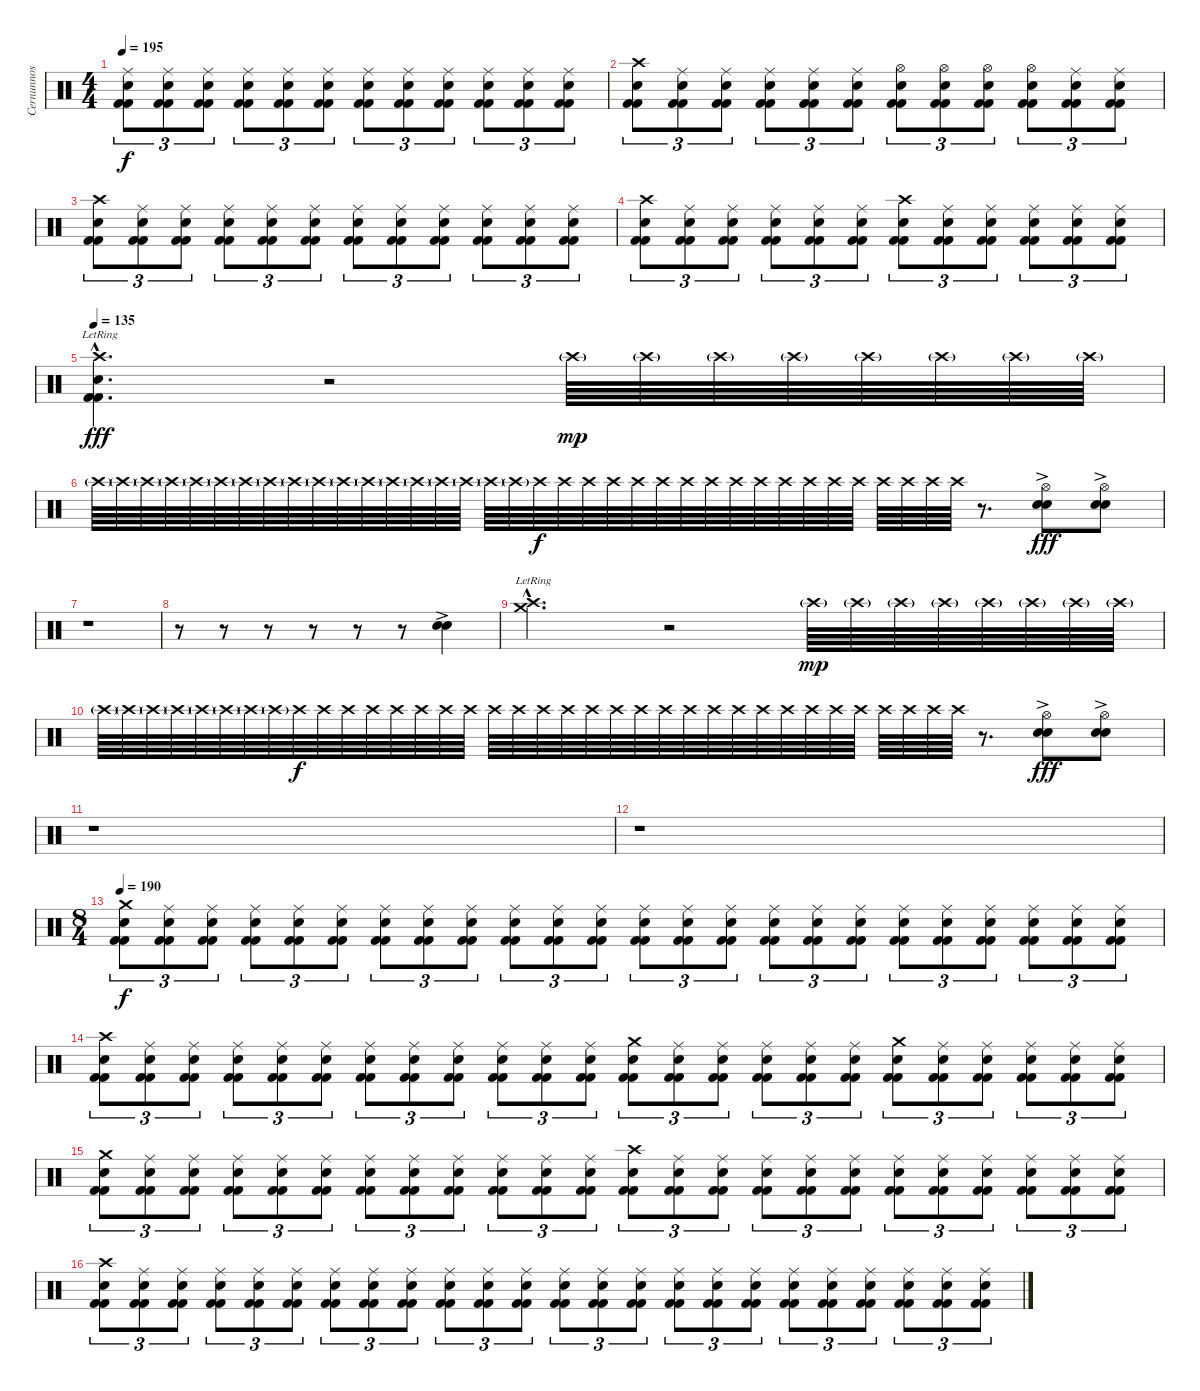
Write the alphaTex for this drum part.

\track ("Cernunnos (in memory)" "Cernunnos ") {instrument percussion}
\staff {score}
\articulation defaults
\ts (4 4)
\tempo 195
\clef neutral
\ks c
("Ride (middle)" "Electric Snare (hit)" "Kick (hit) 2" "Kick (hit) 2").8{tu (3 2) dy f} ("Ride (middle)" "Electric Snare (hit)" "Kick (hit) 2" "Kick (hit) 2").8{tu (3 2)} ("Ride (middle)" "Electric Snare (hit)" "Kick (hit) 2" "Kick (hit) 2").8{tu (3 2)} ("Ride (middle)" "Electric Snare (hit)" "Kick (hit) 2" "Kick (hit) 2").8{tu (3 2)} ("Ride (middle)" "Electric Snare (hit)" "Kick (hit) 2" "Kick (hit) 2").8{tu (3 2)} ("Ride (middle)" "Electric Snare (hit)" "Kick (hit) 2" "Kick (hit) 2").8{tu (3 2)} ("Ride (middle)" "Electric Snare (hit)" "Kick (hit) 2" "Kick (hit) 2").8{tu (3 2)} ("Ride (middle)" "Electric Snare (hit)" "Kick (hit) 2" "Kick (hit) 2").8{tu (3 2)} ("Ride (middle)" "Electric Snare (hit)" "Kick (hit) 2" "Kick (hit) 2").8{tu (3 2)} ("Ride (middle)" "Electric Snare (hit)" "Kick (hit) 2" "Kick (hit) 2").8{tu (3 2)} ("Ride (middle)" "Electric Snare (hit)" "Kick (hit) 2" "Kick (hit) 2").8{tu (3 2)} ("Ride (middle)" "Electric Snare (hit)" "Kick (hit) 2" "Kick (hit) 2").8{tu (3 2)} |
("Crash high (hit)" "Electric Snare (hit)" "Kick (hit) 2" "Kick (hit) 2").8{tu (3 2)} ("Ride (middle)" "Electric Snare (hit)" "Kick (hit) 2" "Kick (hit) 2").8{tu (3 2)} ("Ride (middle)" "Electric Snare (hit)" "Kick (hit) 2" "Kick (hit) 2").8{tu (3 2)} ("Ride (middle)" "Electric Snare (hit)" "Kick (hit) 2" "Kick (hit) 2").8{tu (3 2)} ("Ride (middle)" "Electric Snare (hit)" "Kick (hit) 2" "Kick (hit) 2").8{tu (3 2)} ("Ride (middle)" "Electric Snare (hit)" "Kick (hit) 2" "Kick (hit) 2").8{tu (3 2)} ("Hi-Hat (open)" "Electric Snare (hit)" "Kick (hit) 2" "Kick (hit) 2").8{tu (3 2)} ("Hi-Hat (open)" "Electric Snare (hit)" "Kick (hit) 2" "Kick (hit) 2").8{tu (3 2)} ("Hi-Hat (open)" "Electric Snare (hit)" "Kick (hit) 2" "Kick (hit) 2").8{tu (3 2)} ("Hi-Hat (open)" "Electric Snare (hit)" "Kick (hit) 2" "Kick (hit) 2").8{tu (3 2)} ("Ride (middle)" "Electric Snare (hit)" "Kick (hit) 2" "Kick (hit) 2").8{tu (3 2)} ("Ride (middle)" "Electric Snare (hit)" "Kick (hit) 2" "Kick (hit) 2").8{tu (3 2)} |
("Crash high (hit)" "Electric Snare (hit)" "Kick (hit) 2" "Kick (hit) 2").8{tu (3 2)} ("Ride (middle)" "Electric Snare (hit)" "Kick (hit) 2" "Kick (hit) 2").8{tu (3 2)} ("Ride (middle)" "Electric Snare (hit)" "Kick (hit) 2" "Kick (hit) 2").8{tu (3 2)} ("Ride (middle)" "Electric Snare (hit)" "Kick (hit) 2" "Kick (hit) 2").8{tu (3 2)} ("Ride (middle)" "Electric Snare (hit)" "Kick (hit) 2" "Kick (hit) 2").8{tu (3 2)} ("Ride (middle)" "Electric Snare (hit)" "Kick (hit) 2" "Kick (hit) 2").8{tu (3 2)} ("Ride (middle)" "Electric Snare (hit)" "Kick (hit) 2" "Kick (hit) 2").8{tu (3 2)} ("Ride (middle)" "Electric Snare (hit)" "Kick (hit) 2" "Kick (hit) 2").8{tu (3 2)} ("Ride (middle)" "Electric Snare (hit)" "Kick (hit) 2" "Kick (hit) 2").8{tu (3 2)} ("Ride (middle)" "Electric Snare (hit)" "Kick (hit) 2" "Kick (hit) 2").8{tu (3 2)} ("Ride (middle)" "Electric Snare (hit)" "Kick (hit) 2" "Kick (hit) 2").8{tu (3 2)} ("Ride (middle)" "Electric Snare (hit)" "Kick (hit) 2" "Kick (hit) 2").8{tu (3 2)} |
("Crash high (hit)" "Electric Snare (hit)" "Kick (hit) 2" "Kick (hit) 2").8{tu (3 2)} ("Ride (middle)" "Electric Snare (hit)" "Kick (hit) 2" "Kick (hit) 2").8{tu (3 2)} ("Ride (middle)" "Electric Snare (hit)" "Kick (hit) 2" "Kick (hit) 2").8{tu (3 2)} ("Ride (middle)" "Electric Snare (hit)" "Kick (hit) 2" "Kick (hit) 2").8{tu (3 2)} ("Ride (middle)" "Electric Snare (hit)" "Kick (hit) 2" "Kick (hit) 2").8{tu (3 2)} ("Ride (middle)" "Electric Snare (hit)" "Kick (hit) 2" "Kick (hit) 2").8{tu (3 2)} ("Crash high (hit)" "Electric Snare (hit)" "Kick (hit) 2" "Kick (hit) 2").8{tu (3 2)} ("Ride (middle)" "Electric Snare (hit)" "Kick (hit) 2" "Kick (hit) 2").8{tu (3 2)} ("Ride (middle)" "Electric Snare (hit)" "Kick (hit) 2" "Kick (hit) 2").8{tu (3 2)} ("Ride (middle)" "Electric Snare (hit)" "Kick (hit) 2" "Kick (hit) 2").8{tu (3 2)} ("Ride (middle)" "Electric Snare (hit)" "Kick (hit) 2" "Kick (hit) 2").8{tu (3 2)} ("Ride (middle)" "Electric Snare (hit)" "Kick (hit) 2" "Kick (hit) 2").8{tu (3 2)} |
\tempo 135
("Crash high (hit)"{hac lr} "Electric Snare (hit)"{hac} "Kick (hit) 2"{hac} "Kick (hit) 2"{hac}).4{d dy fff} r.2 "Crash high (hit)"{g}.64{dy mp} "Crash high (hit)"{g}.64 "Crash high (hit)"{g}.64 "Crash high (hit)"{g}.64 "Crash high (hit)"{g}.64 "Crash high (hit)"{g}.64 "Crash high (hit)"{g}.64 "Crash high (hit)"{g}.64 |
"Crash high (hit)"{g}.64 "Crash high (hit)"{g}.64 "Crash high (hit)"{g}.64 "Crash high (hit)"{g}.64 "Crash high (hit)"{g}.64 "Crash high (hit)"{g}.64 "Crash high (hit)"{g}.64 "Crash high (hit)"{g}.64 "Crash high (hit)"{g}.64 "Crash high (hit)"{g}.64 "Crash high (hit)"{g}.64 "Crash high (hit)"{g}.64 "Crash high (hit)"{g}.64 "Crash high (hit)"{g}.64 "Crash high (hit)"{g}.64 "Crash high (hit)"{g}.64 "Crash high (hit)"{g}.64 "Crash high (hit)"{g}.64 "Crash high (hit)".64{dy f} "Crash high (hit)".64 "Crash high (hit)".64 "Crash high (hit)".64 "Crash high (hit)".64 "Crash high (hit)".64 "Crash high (hit)".64 "Crash high (hit)".64 "Crash high (hit)".64 "Crash high (hit)".64 "Crash high (hit)".64 "Crash high (hit)".64 "Crash high (hit)".64 "Crash high (hit)".64 "Crash high (hit)".64 "Crash high (hit)".64 "Crash high (hit)".64 "Crash high (hit)".64 r.8{d} ("Hi-Hat (open)" "Snare (hit) 2"{ac} "Snare (hit) 2"{ac}).8{dy fff} ("Hi-Hat (open)" "Snare (hit) 2"{ac} "Snare (hit) 2").8 |
r.1 |
r.8 r.8 r.8 r.8 r.8 r.8 ("Snare (hit) 2"{ac} "Snare (hit) 2"{ac}).4 |
("Crash high (hit)"{hac lr} "Crash medium (hit)"{hac lr}).4{d} r.2 "Crash high (hit)"{g}.64{dy mp} "Crash high (hit)"{g}.64 "Crash high (hit)"{g}.64 "Crash high (hit)"{g}.64 "Crash high (hit)"{g}.64 "Crash high (hit)"{g}.64 "Crash high (hit)"{g}.64 "Crash high (hit)"{g}.64 |
"Crash high (hit)"{g}.64 "Crash high (hit)"{g}.64 "Crash high (hit)"{g}.64 "Crash high (hit)"{g}.64 "Crash high (hit)"{g}.64 "Crash high (hit)"{g}.64 "Crash high (hit)"{g}.64 "Crash high (hit)"{g}.64 "Crash high (hit)".64{dy f} "Crash high (hit)".64 "Crash high (hit)".64 "Crash high (hit)".64 "Crash high (hit)".64 "Crash high (hit)".64 "Crash high (hit)".64 "Crash high (hit)".64 "Crash high (hit)".64 "Crash high (hit)".64 "Crash high (hit)".64 "Crash high (hit)".64 "Crash high (hit)".64 "Crash high (hit)".64 "Crash high (hit)".64 "Crash high (hit)".64 "Crash high (hit)".64 "Crash high (hit)".64 "Crash high (hit)".64 "Crash high (hit)".64 "Crash high (hit)".64 "Crash high (hit)".64 "Crash high (hit)".64 "Crash high (hit)".64 "Crash high (hit)".64 "Crash high (hit)".64 "Crash high (hit)".64 "Crash high (hit)".64 r.8{d} ("Hi-Hat (open)" "Snare (hit) 2"{ac} "Snare (hit) 2").8{dy fff} ("Hi-Hat (open)" "Snare (hit) 2"{ac} "Snare (hit) 2").8 |
r.1 |
r.1 |
\ts (8 4)
\tempo 190
("Crash medium (hit)" "Electric Snare (hit)" "Kick (hit) 2" "Kick (hit) 2").8{tu (3 2) dy f} ("Ride (middle)" "Electric Snare (hit)" "Kick (hit) 2" "Kick (hit) 2").8{tu (3 2)} ("Ride (middle)" "Electric Snare (hit)" "Kick (hit) 2" "Kick (hit) 2").8{tu (3 2)} ("Ride (middle)" "Electric Snare (hit)" "Kick (hit) 2" "Kick (hit) 2").8{tu (3 2)} ("Ride (middle)" "Electric Snare (hit)" "Kick (hit) 2" "Kick (hit) 2").8{tu (3 2)} ("Ride (middle)" "Electric Snare (hit)" "Kick (hit) 2" "Kick (hit) 2").8{tu (3 2)} ("Ride (middle)" "Electric Snare (hit)" "Kick (hit) 2" "Kick (hit) 2").8{tu (3 2)} ("Ride (middle)" "Electric Snare (hit)" "Kick (hit) 2" "Kick (hit) 2").8{tu (3 2)} ("Ride (middle)" "Electric Snare (hit)" "Kick (hit) 2" "Kick (hit) 2").8{tu (3 2)} ("Ride (middle)" "Electric Snare (hit)" "Kick (hit) 2" "Kick (hit) 2").8{tu (3 2)} ("Ride (middle)" "Electric Snare (hit)" "Kick (hit) 2" "Kick (hit) 2").8{tu (3 2)} ("Ride (middle)" "Electric Snare (hit)" "Kick (hit) 2" "Kick (hit) 2").8{tu (3 2)} ("Ride (middle)" "Electric Snare (hit)" "Kick (hit) 2" "Kick (hit) 2").8{tu (3 2)} ("Ride (middle)" "Electric Snare (hit)" "Kick (hit) 2" "Kick (hit) 2").8{tu (3 2)} ("Ride (middle)" "Electric Snare (hit)" "Kick (hit) 2" "Kick (hit) 2").8{tu (3 2)} ("Ride (middle)" "Electric Snare (hit)" "Kick (hit) 2" "Kick (hit) 2").8{tu (3 2)} ("Ride (middle)" "Electric Snare (hit)" "Kick (hit) 2" "Kick (hit) 2").8{tu (3 2)} ("Ride (middle)" "Electric Snare (hit)" "Kick (hit) 2" "Kick (hit) 2").8{tu (3 2)} ("Ride (middle)" "Electric Snare (hit)" "Kick (hit) 2" "Kick (hit) 2").8{tu (3 2)} ("Ride (middle)" "Electric Snare (hit)" "Kick (hit) 2" "Kick (hit) 2").8{tu (3 2)} ("Ride (middle)" "Electric Snare (hit)" "Kick (hit) 2" "Kick (hit) 2").8{tu (3 2)} ("Ride (middle)" "Electric Snare (hit)" "Kick (hit) 2" "Kick (hit) 2").8{tu (3 2)} ("Ride (middle)" "Electric Snare (hit)" "Kick (hit) 2" "Kick (hit) 2").8{tu (3 2)} ("Ride (middle)" "Electric Snare (hit)" "Kick (hit) 2" "Kick (hit) 2").8{tu (3 2)} |
("Crash high (hit)" "Electric Snare (hit)" "Kick (hit) 2" "Kick (hit) 2").8{tu (3 2)} ("Ride (middle)" "Electric Snare (hit)" "Kick (hit) 2" "Kick (hit) 2").8{tu (3 2)} ("Ride (middle)" "Electric Snare (hit)" "Kick (hit) 2" "Kick (hit) 2").8{tu (3 2)} ("Ride (middle)" "Electric Snare (hit)" "Kick (hit) 2" "Kick (hit) 2").8{tu (3 2)} ("Ride (middle)" "Electric Snare (hit)" "Kick (hit) 2" "Kick (hit) 2").8{tu (3 2)} ("Ride (middle)" "Electric Snare (hit)" "Kick (hit) 2" "Kick (hit) 2").8{tu (3 2)} ("Ride (middle)" "Electric Snare (hit)" "Kick (hit) 2" "Kick (hit) 2").8{tu (3 2)} ("Ride (middle)" "Electric Snare (hit)" "Kick (hit) 2" "Kick (hit) 2").8{tu (3 2)} ("Ride (middle)" "Electric Snare (hit)" "Kick (hit) 2" "Kick (hit) 2").8{tu (3 2)} ("Ride (middle)" "Electric Snare (hit)" "Kick (hit) 2" "Kick (hit) 2").8{tu (3 2)} ("Ride (middle)" "Electric Snare (hit)" "Kick (hit) 2" "Kick (hit) 2").8{tu (3 2)} ("Ride (middle)" "Electric Snare (hit)" "Kick (hit) 2" "Kick (hit) 2").8{tu (3 2)} ("Crash medium (hit)" "Electric Snare (hit)" "Kick (hit) 2" "Kick (hit) 2").8{tu (3 2)} ("Ride (middle)" "Electric Snare (hit)" "Kick (hit) 2" "Kick (hit) 2").8{tu (3 2)} ("Ride (middle)" "Electric Snare (hit)" "Kick (hit) 2" "Kick (hit) 2").8{tu (3 2)} ("Ride (middle)" "Electric Snare (hit)" "Kick (hit) 2" "Kick (hit) 2").8{tu (3 2)} ("Ride (middle)" "Electric Snare (hit)" "Kick (hit) 2" "Kick (hit) 2").8{tu (3 2)} ("Ride (middle)" "Electric Snare (hit)" "Kick (hit) 2" "Kick (hit) 2").8{tu (3 2)} ("Crash medium (hit)" "Electric Snare (hit)" "Kick (hit) 2" "Kick (hit) 2").8{tu (3 2)} ("Ride (middle)" "Electric Snare (hit)" "Kick (hit) 2" "Kick (hit) 2").8{tu (3 2)} ("Ride (middle)" "Electric Snare (hit)" "Kick (hit) 2" "Kick (hit) 2").8{tu (3 2)} ("Ride (middle)" "Electric Snare (hit)" "Kick (hit) 2" "Kick (hit) 2").8{tu (3 2)} ("Ride (middle)" "Electric Snare (hit)" "Kick (hit) 2" "Kick (hit) 2").8{tu (3 2)} ("Ride (middle)" "Electric Snare (hit)" "Kick (hit) 2" "Kick (hit) 2").8{tu (3 2)} |
("Crash medium (hit)" "Electric Snare (hit)" "Kick (hit) 2" "Kick (hit) 2").8{tu (3 2)} ("Ride (middle)" "Electric Snare (hit)" "Kick (hit) 2" "Kick (hit) 2").8{tu (3 2)} ("Ride (middle)" "Electric Snare (hit)" "Kick (hit) 2" "Kick (hit) 2").8{tu (3 2)} ("Ride (middle)" "Electric Snare (hit)" "Kick (hit) 2" "Kick (hit) 2").8{tu (3 2)} ("Ride (middle)" "Electric Snare (hit)" "Kick (hit) 2" "Kick (hit) 2").8{tu (3 2)} ("Ride (middle)" "Electric Snare (hit)" "Kick (hit) 2" "Kick (hit) 2").8{tu (3 2)} ("Ride (middle)" "Electric Snare (hit)" "Kick (hit) 2" "Kick (hit) 2").8{tu (3 2)} ("Ride (middle)" "Electric Snare (hit)" "Kick (hit) 2" "Kick (hit) 2").8{tu (3 2)} ("Ride (middle)" "Electric Snare (hit)" "Kick (hit) 2" "Kick (hit) 2").8{tu (3 2)} ("Ride (middle)" "Electric Snare (hit)" "Kick (hit) 2" "Kick (hit) 2").8{tu (3 2)} ("Ride (middle)" "Electric Snare (hit)" "Kick (hit) 2" "Kick (hit) 2").8{tu (3 2)} ("Ride (middle)" "Electric Snare (hit)" "Kick (hit) 2" "Kick (hit) 2").8{tu (3 2)} ("Crash high (hit)" "Electric Snare (hit)" "Kick (hit) 2" "Kick (hit) 2").8{tu (3 2)} ("Ride (middle)" "Electric Snare (hit)" "Kick (hit) 2" "Kick (hit) 2").8{tu (3 2)} ("Ride (middle)" "Electric Snare (hit)" "Kick (hit) 2" "Kick (hit) 2").8{tu (3 2)} ("Ride (middle)" "Electric Snare (hit)" "Kick (hit) 2" "Kick (hit) 2").8{tu (3 2)} ("Ride (middle)" "Electric Snare (hit)" "Kick (hit) 2" "Kick (hit) 2").8{tu (3 2)} ("Ride (middle)" "Electric Snare (hit)" "Kick (hit) 2" "Kick (hit) 2").8{tu (3 2)} ("Ride (middle)" "Electric Snare (hit)" "Kick (hit) 2" "Kick (hit) 2").8{tu (3 2)} ("Ride (middle)" "Electric Snare (hit)" "Kick (hit) 2" "Kick (hit) 2").8{tu (3 2)} ("Ride (middle)" "Electric Snare (hit)" "Kick (hit) 2" "Kick (hit) 2").8{tu (3 2)} ("Ride (middle)" "Electric Snare (hit)" "Kick (hit) 2" "Kick (hit) 2").8{tu (3 2)} ("Ride (middle)" "Electric Snare (hit)" "Kick (hit) 2" "Kick (hit) 2").8{tu (3 2)} ("Ride (middle)" "Electric Snare (hit)" "Kick (hit) 2" "Kick (hit) 2").8{tu (3 2)} |
("Crash high (hit)" "Electric Snare (hit)" "Kick (hit) 2" "Kick (hit) 2").8{tu (3 2)} ("Ride (middle)" "Electric Snare (hit)" "Kick (hit) 2" "Kick (hit) 2").8{tu (3 2)} ("Ride (middle)" "Electric Snare (hit)" "Kick (hit) 2" "Kick (hit) 2").8{tu (3 2)} ("Ride (middle)" "Electric Snare (hit)" "Kick (hit) 2" "Kick (hit) 2").8{tu (3 2)} ("Ride (middle)" "Electric Snare (hit)" "Kick (hit) 2" "Kick (hit) 2").8{tu (3 2)} ("Ride (middle)" "Electric Snare (hit)" "Kick (hit) 2" "Kick (hit) 2").8{tu (3 2)} ("Ride (middle)" "Electric Snare (hit)" "Kick (hit) 2" "Kick (hit) 2").8{tu (3 2)} ("Ride (middle)" "Electric Snare (hit)" "Kick (hit) 2" "Kick (hit) 2").8{tu (3 2)} ("Ride (middle)" "Electric Snare (hit)" "Kick (hit) 2" "Kick (hit) 2").8{tu (3 2)} ("Ride (middle)" "Electric Snare (hit)" "Kick (hit) 2" "Kick (hit) 2").8{tu (3 2)} ("Ride (middle)" "Electric Snare (hit)" "Kick (hit) 2" "Kick (hit) 2").8{tu (3 2)} ("Ride (middle)" "Electric Snare (hit)" "Kick (hit) 2" "Kick (hit) 2").8{tu (3 2)} ("Ride (middle)" "Electric Snare (hit)" "Kick (hit) 2" "Kick (hit) 2").8{tu (3 2)} ("Ride (middle)" "Electric Snare (hit)" "Kick (hit) 2" "Kick (hit) 2").8{tu (3 2)} ("Ride (middle)" "Electric Snare (hit)" "Kick (hit) 2" "Kick (hit) 2").8{tu (3 2)} ("Ride (middle)" "Electric Snare (hit)" "Kick (hit) 2" "Kick (hit) 2").8{tu (3 2)} ("Ride (middle)" "Electric Snare (hit)" "Kick (hit) 2" "Kick (hit) 2").8{tu (3 2)} ("Ride (middle)" "Electric Snare (hit)" "Kick (hit) 2" "Kick (hit) 2").8{tu (3 2)} ("Ride (middle)" "Electric Snare (hit)" "Kick (hit) 2" "Kick (hit) 2").8{tu (3 2)} ("Ride (middle)" "Electric Snare (hit)" "Kick (hit) 2" "Kick (hit) 2").8{tu (3 2)} ("Ride (middle)" "Electric Snare (hit)" "Kick (hit) 2" "Kick (hit) 2").8{tu (3 2)} ("Ride (middle)" "Electric Snare (hit)" "Kick (hit) 2" "Kick (hit) 2").8{tu (3 2)} ("Ride (middle)" "Electric Snare (hit)" "Kick (hit) 2" "Kick (hit) 2").8{tu (3 2)} ("Ride (middle)" "Electric Snare (hit)" "Kick (hit) 2" "Kick (hit) 2").8{tu (3 2)}
